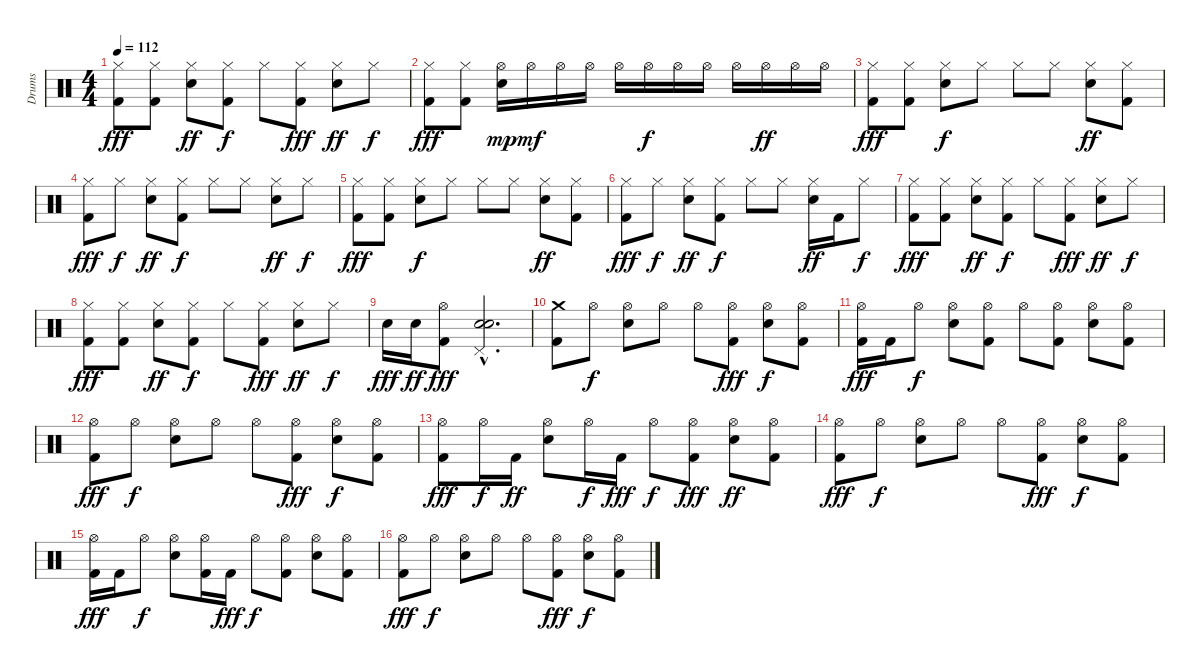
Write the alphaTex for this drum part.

\track ("Drums" "Drums") {instrument percussion}
\staff {score}
\articulation defaults
\ts (4 4)
\tempo 112
\clef neutral
\ks c
("Hi-Hat (closed)" "Kick (hit) 2").8{dy fff} ("Hi-Hat (closed)" "Kick (hit) 2").8 ("Hi-Hat (closed)" "Snare (hit) 2").8{dy ff} ("Hi-Hat (closed)" "Kick (hit) 2").8{dy f} "Hi-Hat (closed)".8 ("Hi-Hat (closed)" "Kick (hit) 2").8{dy fff} ("Hi-Hat (closed)" "Snare (hit) 2").8{dy ff} "Hi-Hat (closed)".8{dy f} |
("Hi-Hat (closed)" "Kick (hit) 2").8{dy fff} ("Hi-Hat (closed)" "Kick (hit) 2").8 ("Snare (hit) 2" "Hi-Hat (open)").16{dy mp} "Hi-Hat (open)".16{dy mf} "Hi-Hat (open)".16 "Hi-Hat (open)".16 "Hi-Hat (open)".16 "Hi-Hat (open)".16{dy f} "Hi-Hat (open)".16 "Hi-Hat (open)".16 "Hi-Hat (open)".16 "Hi-Hat (open)".16{dy ff} "Hi-Hat (open)".16 "Hi-Hat (open)".16 |
("Hi-Hat (closed)" "Kick (hit) 2").8{dy fff} ("Hi-Hat (closed)" "Kick (hit) 2").8 ("Hi-Hat (closed)" "Snare (hit) 2").8{dy f} "Hi-Hat (closed)".8 "Hi-Hat (closed)".8 "Hi-Hat (closed)".8 ("Snare (hit) 2" "Hi-Hat (closed)").8{dy ff} ("Kick (hit) 2" "Hi-Hat (closed)").8 |
("Hi-Hat (closed)" "Kick (hit) 2").8{dy fff} "Hi-Hat (closed)".8{dy f} ("Hi-Hat (closed)" "Snare (hit) 2").8{dy ff} ("Kick (hit) 2" "Hi-Hat (closed)").8{dy f} "Hi-Hat (closed)".8 "Hi-Hat (closed)".8 ("Snare (hit) 2" "Hi-Hat (closed)").8{dy ff} "Hi-Hat (closed)".8{dy f} |
("Hi-Hat (closed)" "Kick (hit) 2").8{dy fff} ("Hi-Hat (closed)" "Kick (hit) 2").8 ("Hi-Hat (closed)" "Snare (hit) 2").8{dy f} "Hi-Hat (closed)".8 "Hi-Hat (closed)".8 "Hi-Hat (closed)".8 ("Snare (hit) 2" "Hi-Hat (closed)").8{dy ff} ("Kick (hit) 2" "Hi-Hat (closed)").8 |
("Hi-Hat (closed)" "Kick (hit) 2").8{dy fff} "Hi-Hat (closed)".8{dy f} ("Hi-Hat (closed)" "Snare (hit) 2").8{dy ff} ("Kick (hit) 2" "Hi-Hat (closed)").8{dy f} "Hi-Hat (closed)".8 "Hi-Hat (closed)".8 ("Snare (hit) 2" "Hi-Hat (closed)").16{dy ff} "Kick (hit) 2".16 "Hi-Hat (closed)".8{dy f} |
("Hi-Hat (closed)" "Kick (hit) 2").8{dy fff} ("Hi-Hat (closed)" "Kick (hit) 2").8 ("Hi-Hat (closed)" "Snare (hit) 2").8{dy ff} ("Hi-Hat (closed)" "Kick (hit) 2").8{dy f} "Hi-Hat (closed)".8 ("Hi-Hat (closed)" "Kick (hit) 2").8{dy fff} ("Hi-Hat (closed)" "Snare (hit) 2").8{dy ff} "Hi-Hat (closed)".8{dy f} |
("Hi-Hat (closed)" "Kick (hit) 2").8{dy fff} ("Hi-Hat (closed)" "Kick (hit) 2").8 ("Hi-Hat (closed)" "Snare (hit) 2").8{dy ff} ("Hi-Hat (closed)" "Kick (hit) 2").8{dy f} "Hi-Hat (closed)".8 ("Hi-Hat (closed)" "Kick (hit) 2").8{dy fff} ("Hi-Hat (closed)" "Snare (hit) 2").8{dy ff} "Hi-Hat (closed)".8{dy f} |
"Snare (hit) 2".16{dy fff} "Snare (hit) 2".16{dy ff} ("Hi-Hat (open)" "Kick (hit) 2").8{dy fff} ("Snare (hit) 2"{hac} "Pedal Hi-Hat (hit)" "Snare (hit) 2").2{d} |
("Crash medium (hit)" "Kick (hit) 2").8 "Hi-Hat (open)".8{dy f} ("Hi-Hat (open)" "Snare (hit) 2").8 "Hi-Hat (open)".8 "Hi-Hat (open)".8 ("Hi-Hat (open)" "Kick (hit) 2").8{dy fff} ("Hi-Hat (open)" "Snare (hit) 2").8{dy f} ("Hi-Hat (open)" "Kick (hit) 2").8 |
("Hi-Hat (open)" "Kick (hit) 2").16{dy fff} "Kick (hit) 2".16 "Hi-Hat (open)".8{dy f} ("Hi-Hat (open)" "Snare (hit) 2").8 ("Hi-Hat (open)" "Kick (hit) 2").8 "Hi-Hat (open)".8 ("Hi-Hat (open)" "Kick (hit) 2").8 ("Hi-Hat (open)" "Snare (hit) 2").8 ("Hi-Hat (open)" "Kick (hit) 2").8 |
("Hi-Hat (open)" "Kick (hit) 2").8{dy fff} "Hi-Hat (open)".8{dy f} ("Hi-Hat (open)" "Snare (hit) 2").8 "Hi-Hat (open)".8 "Hi-Hat (open)".8 ("Hi-Hat (open)" "Kick (hit) 2").8{dy fff} ("Hi-Hat (open)" "Snare (hit) 2").8{dy f} ("Hi-Hat (open)" "Kick (hit) 2").8 |
("Hi-Hat (open)" "Kick (hit) 2").8{dy fff} "Hi-Hat (open)".16{dy f} "Kick (hit) 2".16{dy ff} ("Hi-Hat (open)" "Snare (hit) 2").8 "Hi-Hat (open)".16{dy f} "Kick (hit) 2".16{dy fff} "Hi-Hat (open)".8{dy f} ("Kick (hit) 2" "Hi-Hat (open)").8{dy fff} ("Snare (hit) 2" "Hi-Hat (open)").8{dy ff} ("Kick (hit) 2" "Hi-Hat (open)").8 |
("Hi-Hat (open)" "Kick (hit) 2").8{dy fff} "Hi-Hat (open)".8{dy f} ("Hi-Hat (open)" "Snare (hit) 2").8 "Hi-Hat (open)".8 "Hi-Hat (open)".8 ("Hi-Hat (open)" "Kick (hit) 2").8{dy fff} ("Hi-Hat (open)" "Snare (hit) 2").8{dy f} ("Hi-Hat (open)" "Kick (hit) 2").8 |
("Hi-Hat (open)" "Kick (hit) 2").16{dy fff} "Kick (hit) 2".16 "Hi-Hat (open)".8{dy f} ("Hi-Hat (open)" "Snare (hit) 2").8 ("Hi-Hat (open)" "Kick (hit) 2").16 "Kick (hit) 2".16{dy fff} "Hi-Hat (open)".8{dy f} ("Hi-Hat (open)" "Kick (hit) 2").8 ("Hi-Hat (open)" "Snare (hit) 2").8 ("Hi-Hat (open)" "Kick (hit) 2").8 |
("Hi-Hat (open)" "Kick (hit) 2").8{dy fff} "Hi-Hat (open)".8{dy f} ("Hi-Hat (open)" "Snare (hit) 2").8 "Hi-Hat (open)".8 "Hi-Hat (open)".8 ("Hi-Hat (open)" "Kick (hit) 2").8{dy fff} ("Hi-Hat (open)" "Snare (hit) 2").8{dy f} ("Hi-Hat (open)" "Kick (hit) 2").8
